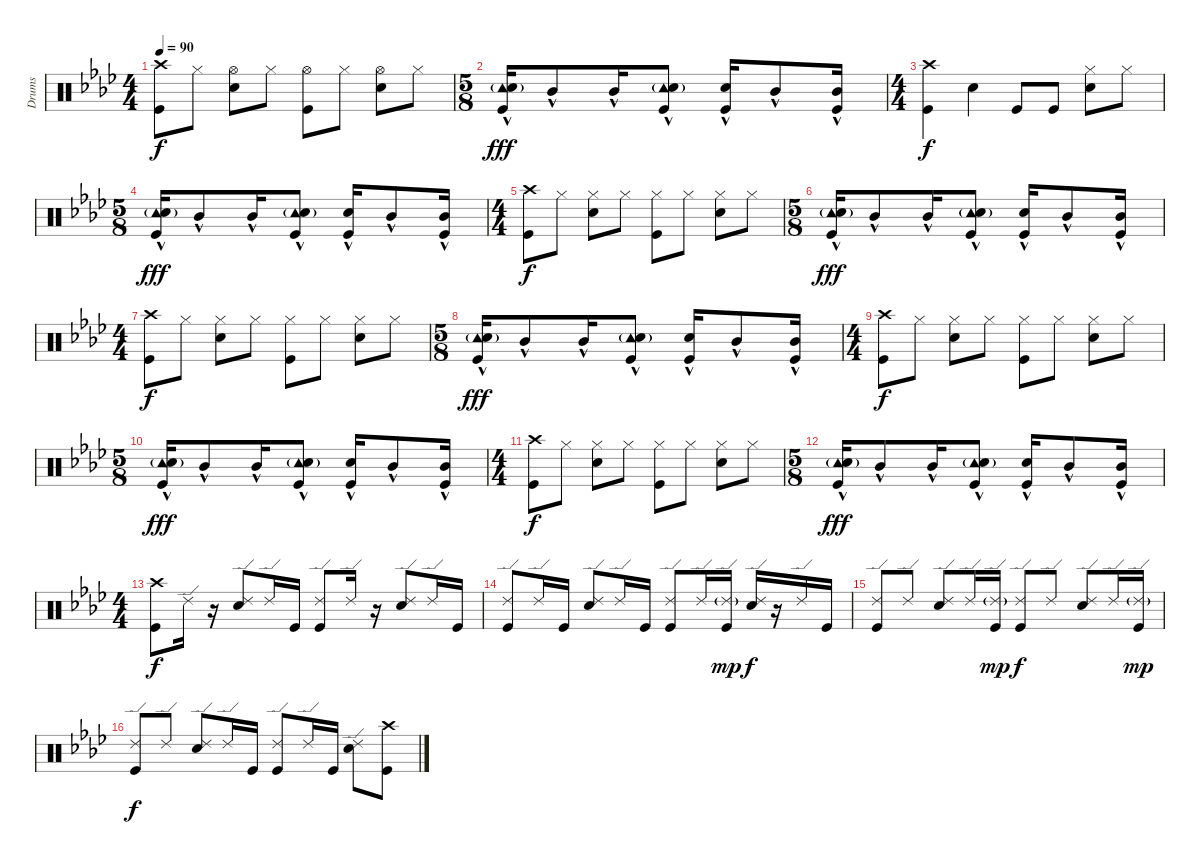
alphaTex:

\track ("Drums" "Drums") {instrument percussion}
\staff {score}
\articulation defaults
\ts (4 4)
\tempo 90
\clef neutral
\ks ab
("Crash high (hit)" "Kick (hit)").8{dy f} "Hi-Hat (closed)".8 ("Hi-Hat (open)" "Snare (hit) 2").8 "Hi-Hat (closed)".8 ("Hi-Hat (open)" "Kick (hit)").8 "Hi-Hat (closed)".8 ("Hi-Hat (open)" "Snare (hit) 2").8 "Hi-Hat (closed)".8 |
\ts (5 8)
("Tambourine (hit)"{g} "Snare (hit) 2"{hac} "Kick (hit)"{hac}).16{dy fff} "Mid Tom (hit)"{hac}.8 "Mid Tom (hit)"{hac}.16 ("Tambourine (hit)"{g} "Snare (hit) 2"{hac} "Kick (hit)"{hac}).8 ("Snare (hit) 2"{hac} "Kick (hit)"{hac}).16 "Mid Tom (hit)"{hac}.8 ("Mid Tom (hit)"{hac} "Kick (hit)"{hac}).16 |
\ts (4 4)
("Crash high (hit)" "Kick (hit)").4{dy f} "Snare (hit) 2".4 "Kick (hit)".8 "Kick (hit)".8 ("Hi-Hat (closed)" "Snare (hit) 2").8 "Hi-Hat (closed)".8 |
\ts (5 8)
("Tambourine (hit)"{g} "Snare (hit) 2"{hac} "Kick (hit)"{hac}).16{dy fff} "Mid Tom (hit)"{hac}.8 "Mid Tom (hit)"{hac}.16 ("Tambourine (hit)"{g} "Snare (hit) 2"{hac} "Kick (hit)"{hac}).8 ("Snare (hit) 2"{hac} "Kick (hit)"{hac}).16 "Mid Tom (hit)"{hac}.8 ("Mid Tom (hit)"{hac} "Kick (hit)"{hac}).16 |
\ts (4 4)
("Crash high (hit)" "Kick (hit)").8{dy f} "Hi-Hat (closed)".8 ("Hi-Hat (closed)" "Snare (hit) 2").8 "Hi-Hat (closed)".8 ("Hi-Hat (closed)" "Kick (hit)").8 "Hi-Hat (closed)".8 ("Hi-Hat (closed)" "Snare (hit) 2").8 "Hi-Hat (closed)".8 |
\ts (5 8)
("Tambourine (hit)"{g} "Snare (hit) 2"{hac} "Kick (hit)"{hac}).16{dy fff} "Mid Tom (hit)"{hac}.8 "Mid Tom (hit)"{hac}.16 ("Tambourine (hit)"{g} "Snare (hit) 2"{hac} "Kick (hit)"{hac}).8 ("Snare (hit) 2"{hac} "Kick (hit)"{hac}).16 "Mid Tom (hit)"{hac}.8 ("Mid Tom (hit)"{hac} "Kick (hit)"{hac}).16 |
\ts (4 4)
("Crash high (hit)" "Kick (hit)").8{dy f} "Hi-Hat (closed)".8 ("Hi-Hat (closed)" "Snare (hit) 2").8 "Hi-Hat (closed)".8 ("Hi-Hat (closed)" "Kick (hit)").8 "Hi-Hat (closed)".8 ("Hi-Hat (closed)" "Snare (hit) 2").8 "Hi-Hat (closed)".8 |
\ts (5 8)
("Tambourine (hit)"{g} "Snare (hit) 2"{hac} "Kick (hit)"{hac}).16{dy fff} "Mid Tom (hit)"{hac}.8 "Mid Tom (hit)"{hac}.16 ("Tambourine (hit)"{g} "Snare (hit) 2"{hac} "Kick (hit)"{hac}).8 ("Snare (hit) 2"{hac} "Kick (hit)"{hac}).16 "Mid Tom (hit)"{hac}.8 ("Mid Tom (hit)"{hac} "Kick (hit)"{hac}).16 |
\ts (4 4)
("Crash high (hit)" "Kick (hit)").8{dy f} "Hi-Hat (closed)".8 ("Hi-Hat (closed)" "Snare (hit) 2").8 "Hi-Hat (closed)".8 ("Hi-Hat (closed)" "Kick (hit)").8 "Hi-Hat (closed)".8 ("Hi-Hat (closed)" "Snare (hit) 2").8 "Hi-Hat (closed)".8 |
\ts (5 8)
("Tambourine (hit)"{g} "Snare (hit) 2"{hac} "Kick (hit)"{hac}).16{dy fff} "Mid Tom (hit)"{hac}.8 "Mid Tom (hit)"{hac}.16 ("Tambourine (hit)"{g} "Snare (hit) 2"{hac} "Kick (hit)"{hac}).8 ("Snare (hit) 2"{hac} "Kick (hit)"{hac}).16 "Mid Tom (hit)"{hac}.8 ("Mid Tom (hit)"{hac} "Kick (hit)"{hac}).16 |
\ts (4 4)
("Crash high (hit)" "Kick (hit)").8{dy f} "Hi-Hat (closed)".8 ("Hi-Hat (closed)" "Snare (hit) 2").8 "Hi-Hat (closed)".8 ("Hi-Hat (closed)" "Kick (hit)").8 "Hi-Hat (closed)".8 ("Hi-Hat (closed)" "Snare (hit) 2").8 "Hi-Hat (closed)".8 |
\ts (5 8)
("Tambourine (hit)"{g} "Snare (hit) 2"{hac} "Kick (hit)"{hac}).16{dy fff} "Mid Tom (hit)"{hac}.8 "Mid Tom (hit)"{hac}.16 ("Tambourine (hit)"{g} "Snare (hit) 2"{hac} "Kick (hit)"{hac}).8 ("Snare (hit) 2"{hac} "Kick (hit)"{hac}).16 "Mid Tom (hit)"{hac}.8 ("Mid Tom (hit)"{hac} "Kick (hit)"{hac}).16 |
\ts (4 4)
("Crash high (hit)" "Kick (hit)").8{dy f} "Ride (edge) 2".16 r.16 ("Ride (edge) 2" "Snare (hit) 2").8 "Ride (edge) 2".16 "Kick (hit)".16 ("Ride (edge) 2" "Kick (hit)").8 "Ride (edge) 2".16 r.16 ("Ride (edge) 2" "Snare (hit) 2").8 "Ride (edge) 2".16 "Kick (hit)".16 |
("Ride (edge) 2" "Kick (hit)").8 "Ride (edge) 2".16 "Kick (hit)".16 ("Ride (edge) 2" "Snare (hit) 2").8 "Ride (edge) 2".16 "Kick (hit)".16 ("Ride (edge) 2" "Kick (hit)").8 "Ride (edge) 2".16 ("Ride (edge) 2"{g} "Kick (hit)").16{dy mp} ("Ride (edge) 2" "Snare (hit) 2").16{dy f} r.16 "Ride (edge) 2".16 "Kick (hit)".16 |
("Ride (edge) 2" "Kick (hit)").8 "Ride (edge) 2".8 ("Ride (edge) 2" "Snare (hit) 2").8 "Ride (edge) 2".16 ("Ride (edge) 2"{g} "Kick (hit)").16{dy mp} ("Ride (edge) 2" "Kick (hit)").8{dy f} "Ride (edge) 2".8 ("Ride (edge) 2" "Snare (hit) 2").8 "Ride (edge) 2".16 ("Ride (edge) 2"{g} "Kick (hit)").16{dy mp} |
("Ride (edge) 2" "Kick (hit)").8{dy f} "Ride (edge) 2".8 ("Ride (edge) 2" "Snare (hit) 2").8 "Ride (edge) 2".16 "Kick (hit)".16 ("Ride (edge) 2" "Kick (hit)").8 "Ride (edge) 2".16 "Kick (hit)".16 ("Ride (edge) 2" "Snare (hit) 2").8 ("Crash high (hit)" "Kick (hit)").8
